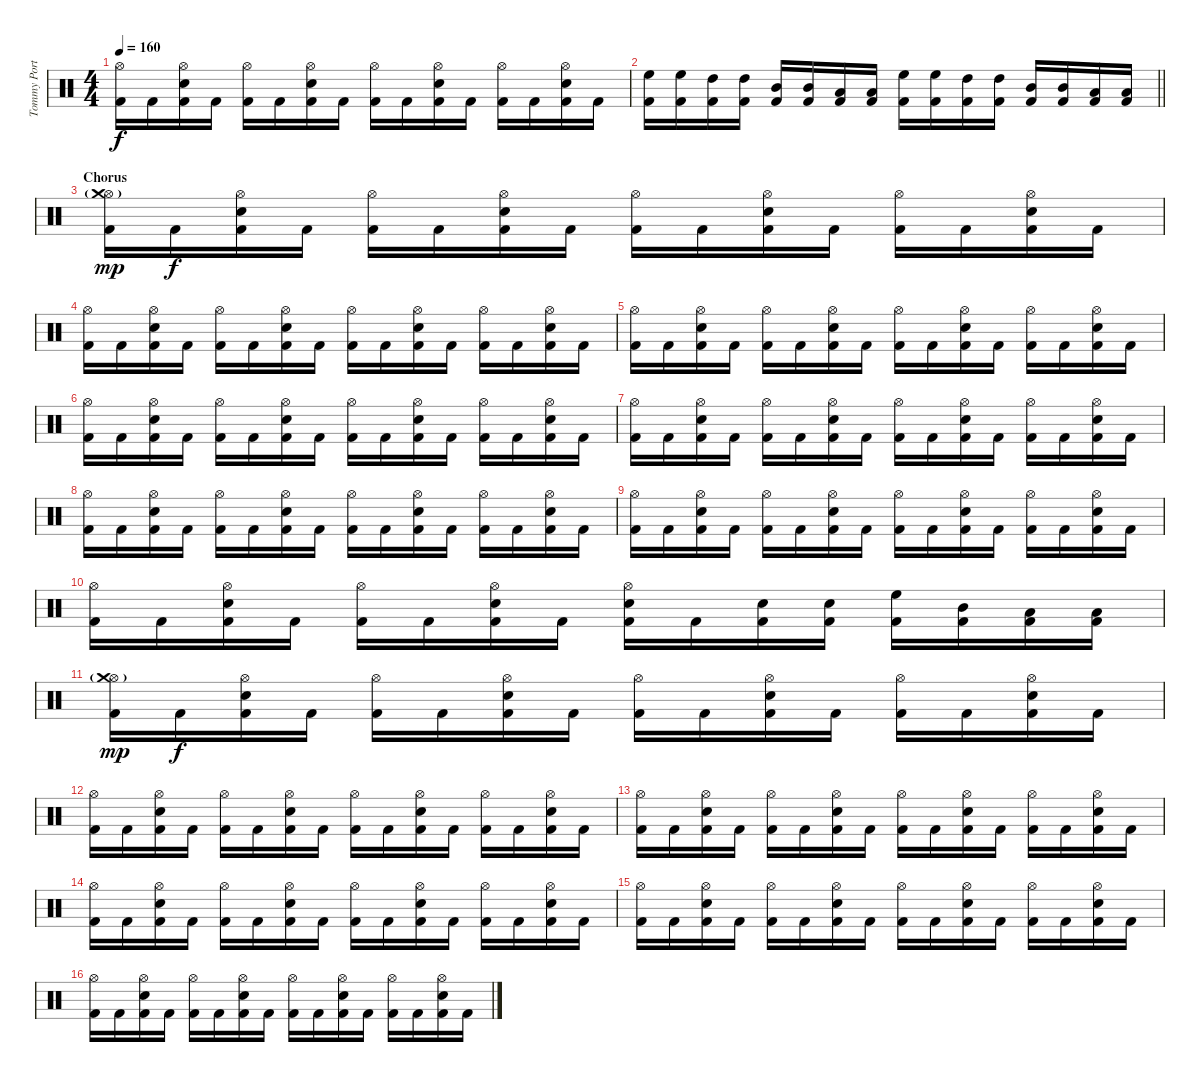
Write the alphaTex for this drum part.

\track ("Tommy Portino" "Tommy Port") {instrument percussion}
\staff {score}
\articulation defaults
\ts (4 4)
\tempo 160
\clef neutral
\ks c
("Hi-Hat (open)" "Kick (hit) 2").16{dy f} "Kick (hit) 2".16 ("Hi-Hat (open)" "Snare (hit) 2" "Kick (hit) 2").16 "Kick (hit) 2".16 ("Hi-Hat (open)" "Kick (hit) 2").16 "Kick (hit) 2".16 ("Hi-Hat (open)" "Snare (hit) 2" "Kick (hit) 2").16 "Kick (hit) 2".16 ("Hi-Hat (open)" "Kick (hit) 2").16 "Kick (hit) 2".16 ("Hi-Hat (open)" "Snare (hit) 2" "Kick (hit) 2").16 "Kick (hit) 2".16 ("Hi-Hat (open)" "Kick (hit) 2").16 "Kick (hit) 2".16 ("Hi-Hat (open)" "Snare (hit) 2" "Kick (hit) 2").16 "Kick (hit) 2".16 |
\barLineRight lightlight
("High Floor Tom (hit)" "Kick (hit) 2").16 ("High Floor Tom (hit)" "Kick (hit) 2").16 ("High Tom (hit)" "Kick (hit) 2").16 ("High Tom (hit)" "Kick (hit) 2").16 ("Mid Tom (hit)" "Kick (hit) 2").16 ("Mid Tom (hit)" "Kick (hit) 2").16 ("Low Tom (hit)" "Kick (hit) 2").16 ("Low Tom (hit)" "Kick (hit) 2").16 ("High Floor Tom (hit)" "Kick (hit) 2").16 ("High Floor Tom (hit)" "Kick (hit) 2").16 ("High Tom (hit)" "Kick (hit) 2").16 ("High Tom (hit)" "Kick (hit) 2").16 ("Mid Tom (hit)" "Kick (hit) 2").16 ("Mid Tom (hit)" "Kick (hit) 2").16 ("Low Tom (hit)" "Kick (hit) 2").16 ("Low Tom (hit)" "Kick (hit) 2").16 |
\section ("" "Chorus")
("Hi-Hat (open)"{g} "Crash medium (hit)" "Kick (hit) 2").16{dy mp} "Kick (hit) 2".16{dy f} ("Hi-Hat (open)" "Snare (hit) 2" "Kick (hit) 2").16 "Kick (hit) 2".16 ("Hi-Hat (open)" "Kick (hit) 2").16 "Kick (hit) 2".16 ("Hi-Hat (open)" "Snare (hit) 2" "Kick (hit) 2").16 "Kick (hit) 2".16 ("Hi-Hat (open)" "Kick (hit) 2").16 "Kick (hit) 2".16 ("Hi-Hat (open)" "Snare (hit) 2" "Kick (hit) 2").16 "Kick (hit) 2".16 ("Hi-Hat (open)" "Kick (hit) 2").16 "Kick (hit) 2".16 ("Hi-Hat (open)" "Snare (hit) 2" "Kick (hit) 2").16 "Kick (hit) 2".16 |
("Hi-Hat (open)" "Kick (hit) 2").16 "Kick (hit) 2".16 ("Hi-Hat (open)" "Snare (hit) 2" "Kick (hit) 2").16 "Kick (hit) 2".16 ("Hi-Hat (open)" "Kick (hit) 2").16 "Kick (hit) 2".16 ("Hi-Hat (open)" "Snare (hit) 2" "Kick (hit) 2").16 "Kick (hit) 2".16 ("Hi-Hat (open)" "Kick (hit) 2").16 "Kick (hit) 2".16 ("Hi-Hat (open)" "Snare (hit) 2" "Kick (hit) 2").16 "Kick (hit) 2".16 ("Hi-Hat (open)" "Kick (hit) 2").16 "Kick (hit) 2".16 ("Hi-Hat (open)" "Snare (hit) 2" "Kick (hit) 2").16 "Kick (hit) 2".16 |
("Hi-Hat (open)" "Kick (hit) 2").16 "Kick (hit) 2".16 ("Hi-Hat (open)" "Snare (hit) 2" "Kick (hit) 2").16 "Kick (hit) 2".16 ("Hi-Hat (open)" "Kick (hit) 2").16 "Kick (hit) 2".16 ("Hi-Hat (open)" "Snare (hit) 2" "Kick (hit) 2").16 "Kick (hit) 2".16 ("Hi-Hat (open)" "Kick (hit) 2").16 "Kick (hit) 2".16 ("Hi-Hat (open)" "Snare (hit) 2" "Kick (hit) 2").16 "Kick (hit) 2".16 ("Hi-Hat (open)" "Kick (hit) 2").16 "Kick (hit) 2".16 ("Hi-Hat (open)" "Snare (hit) 2" "Kick (hit) 2").16 "Kick (hit) 2".16 |
("Hi-Hat (open)" "Kick (hit) 2").16 "Kick (hit) 2".16 ("Hi-Hat (open)" "Snare (hit) 2" "Kick (hit) 2").16 "Kick (hit) 2".16 ("Hi-Hat (open)" "Kick (hit) 2").16 "Kick (hit) 2".16 ("Hi-Hat (open)" "Snare (hit) 2" "Kick (hit) 2").16 "Kick (hit) 2".16 ("Hi-Hat (open)" "Kick (hit) 2").16 "Kick (hit) 2".16 ("Hi-Hat (open)" "Snare (hit) 2" "Kick (hit) 2").16 "Kick (hit) 2".16 ("Hi-Hat (open)" "Kick (hit) 2").16 "Kick (hit) 2".16 ("Hi-Hat (open)" "Snare (hit) 2" "Kick (hit) 2").16 "Kick (hit) 2".16 |
("Hi-Hat (open)" "Kick (hit) 2").16 "Kick (hit) 2".16 ("Hi-Hat (open)" "Snare (hit) 2" "Kick (hit) 2").16 "Kick (hit) 2".16 ("Hi-Hat (open)" "Kick (hit) 2").16 "Kick (hit) 2".16 ("Hi-Hat (open)" "Snare (hit) 2" "Kick (hit) 2").16 "Kick (hit) 2".16 ("Hi-Hat (open)" "Kick (hit) 2").16 "Kick (hit) 2".16 ("Hi-Hat (open)" "Snare (hit) 2" "Kick (hit) 2").16 "Kick (hit) 2".16 ("Hi-Hat (open)" "Kick (hit) 2").16 "Kick (hit) 2".16 ("Hi-Hat (open)" "Snare (hit) 2" "Kick (hit) 2").16 "Kick (hit) 2".16 |
("Hi-Hat (open)" "Kick (hit) 2").16 "Kick (hit) 2".16 ("Hi-Hat (open)" "Snare (hit) 2" "Kick (hit) 2").16 "Kick (hit) 2".16 ("Hi-Hat (open)" "Kick (hit) 2").16 "Kick (hit) 2".16 ("Hi-Hat (open)" "Snare (hit) 2" "Kick (hit) 2").16 "Kick (hit) 2".16 ("Hi-Hat (open)" "Kick (hit) 2").16 "Kick (hit) 2".16 ("Hi-Hat (open)" "Snare (hit) 2" "Kick (hit) 2").16 "Kick (hit) 2".16 ("Hi-Hat (open)" "Kick (hit) 2").16 "Kick (hit) 2".16 ("Hi-Hat (open)" "Snare (hit) 2" "Kick (hit) 2").16 "Kick (hit) 2".16 |
("Hi-Hat (open)" "Kick (hit) 2").16 "Kick (hit) 2".16 ("Hi-Hat (open)" "Snare (hit) 2" "Kick (hit) 2").16 "Kick (hit) 2".16 ("Hi-Hat (open)" "Kick (hit) 2").16 "Kick (hit) 2".16 ("Hi-Hat (open)" "Snare (hit) 2" "Kick (hit) 2").16 "Kick (hit) 2".16 ("Hi-Hat (open)" "Kick (hit) 2").16 "Kick (hit) 2".16 ("Hi-Hat (open)" "Snare (hit) 2" "Kick (hit) 2").16 "Kick (hit) 2".16 ("Hi-Hat (open)" "Kick (hit) 2").16 "Kick (hit) 2".16 ("Hi-Hat (open)" "Snare (hit) 2" "Kick (hit) 2").16 "Kick (hit) 2".16 |
("Hi-Hat (open)" "Kick (hit) 2").16 "Kick (hit) 2".16 ("Hi-Hat (open)" "Snare (hit) 2" "Kick (hit) 2").16 "Kick (hit) 2".16 ("Hi-Hat (open)" "Kick (hit) 2").16 "Kick (hit) 2".16 ("Hi-Hat (open)" "Snare (hit) 2" "Kick (hit) 2").16 "Kick (hit) 2".16 ("Hi-Hat (open)" "Snare (hit) 2" "Kick (hit) 2").16 "Kick (hit) 2".16 ("Snare (hit) 2" "Kick (hit) 2").16 ("Snare (hit) 2" "Kick (hit) 2").16 ("High Floor Tom (hit)" "Kick (hit) 2").16 ("Mid Tom (hit)" "Kick (hit) 2").16 ("Low Tom (hit)" "Kick (hit) 2").16 ("Low Tom (hit)" "Kick (hit) 2").16 |
("Hi-Hat (open)"{g} "Crash medium (hit)" "Kick (hit) 2").16{dy mp} "Kick (hit) 2".16{dy f} ("Hi-Hat (open)" "Snare (hit) 2" "Kick (hit) 2").16 "Kick (hit) 2".16 ("Hi-Hat (open)" "Kick (hit) 2").16 "Kick (hit) 2".16 ("Hi-Hat (open)" "Snare (hit) 2" "Kick (hit) 2").16 "Kick (hit) 2".16 ("Hi-Hat (open)" "Kick (hit) 2").16 "Kick (hit) 2".16 ("Hi-Hat (open)" "Snare (hit) 2" "Kick (hit) 2").16 "Kick (hit) 2".16 ("Hi-Hat (open)" "Kick (hit) 2").16 "Kick (hit) 2".16 ("Hi-Hat (open)" "Snare (hit) 2" "Kick (hit) 2").16 "Kick (hit) 2".16 |
("Hi-Hat (open)" "Kick (hit) 2").16 "Kick (hit) 2".16 ("Hi-Hat (open)" "Snare (hit) 2" "Kick (hit) 2").16 "Kick (hit) 2".16 ("Hi-Hat (open)" "Kick (hit) 2").16 "Kick (hit) 2".16 ("Hi-Hat (open)" "Snare (hit) 2" "Kick (hit) 2").16 "Kick (hit) 2".16 ("Hi-Hat (open)" "Kick (hit) 2").16 "Kick (hit) 2".16 ("Hi-Hat (open)" "Snare (hit) 2" "Kick (hit) 2").16 "Kick (hit) 2".16 ("Hi-Hat (open)" "Kick (hit) 2").16 "Kick (hit) 2".16 ("Hi-Hat (open)" "Snare (hit) 2" "Kick (hit) 2").16 "Kick (hit) 2".16 |
("Hi-Hat (open)" "Kick (hit) 2").16 "Kick (hit) 2".16 ("Hi-Hat (open)" "Snare (hit) 2" "Kick (hit) 2").16 "Kick (hit) 2".16 ("Hi-Hat (open)" "Kick (hit) 2").16 "Kick (hit) 2".16 ("Hi-Hat (open)" "Snare (hit) 2" "Kick (hit) 2").16 "Kick (hit) 2".16 ("Hi-Hat (open)" "Kick (hit) 2").16 "Kick (hit) 2".16 ("Hi-Hat (open)" "Snare (hit) 2" "Kick (hit) 2").16 "Kick (hit) 2".16 ("Hi-Hat (open)" "Kick (hit) 2").16 "Kick (hit) 2".16 ("Hi-Hat (open)" "Snare (hit) 2" "Kick (hit) 2").16 "Kick (hit) 2".16 |
("Hi-Hat (open)" "Kick (hit) 2").16 "Kick (hit) 2".16 ("Hi-Hat (open)" "Snare (hit) 2" "Kick (hit) 2").16 "Kick (hit) 2".16 ("Hi-Hat (open)" "Kick (hit) 2").16 "Kick (hit) 2".16 ("Hi-Hat (open)" "Snare (hit) 2" "Kick (hit) 2").16 "Kick (hit) 2".16 ("Hi-Hat (open)" "Kick (hit) 2").16 "Kick (hit) 2".16 ("Hi-Hat (open)" "Snare (hit) 2" "Kick (hit) 2").16 "Kick (hit) 2".16 ("Hi-Hat (open)" "Kick (hit) 2").16 "Kick (hit) 2".16 ("Hi-Hat (open)" "Snare (hit) 2" "Kick (hit) 2").16 "Kick (hit) 2".16 |
("Hi-Hat (open)" "Kick (hit) 2").16 "Kick (hit) 2".16 ("Hi-Hat (open)" "Snare (hit) 2" "Kick (hit) 2").16 "Kick (hit) 2".16 ("Hi-Hat (open)" "Kick (hit) 2").16 "Kick (hit) 2".16 ("Hi-Hat (open)" "Snare (hit) 2" "Kick (hit) 2").16 "Kick (hit) 2".16 ("Hi-Hat (open)" "Kick (hit) 2").16 "Kick (hit) 2".16 ("Hi-Hat (open)" "Snare (hit) 2" "Kick (hit) 2").16 "Kick (hit) 2".16 ("Hi-Hat (open)" "Kick (hit) 2").16 "Kick (hit) 2".16 ("Hi-Hat (open)" "Snare (hit) 2" "Kick (hit) 2").16 "Kick (hit) 2".16 |
("Hi-Hat (open)" "Kick (hit) 2").16 "Kick (hit) 2".16 ("Hi-Hat (open)" "Snare (hit) 2" "Kick (hit) 2").16 "Kick (hit) 2".16 ("Hi-Hat (open)" "Kick (hit) 2").16 "Kick (hit) 2".16 ("Hi-Hat (open)" "Snare (hit) 2" "Kick (hit) 2").16 "Kick (hit) 2".16 ("Hi-Hat (open)" "Kick (hit) 2").16 "Kick (hit) 2".16 ("Hi-Hat (open)" "Snare (hit) 2" "Kick (hit) 2").16 "Kick (hit) 2".16 ("Hi-Hat (open)" "Kick (hit) 2").16 "Kick (hit) 2".16 ("Hi-Hat (open)" "Snare (hit) 2" "Kick (hit) 2").16 "Kick (hit) 2".16
